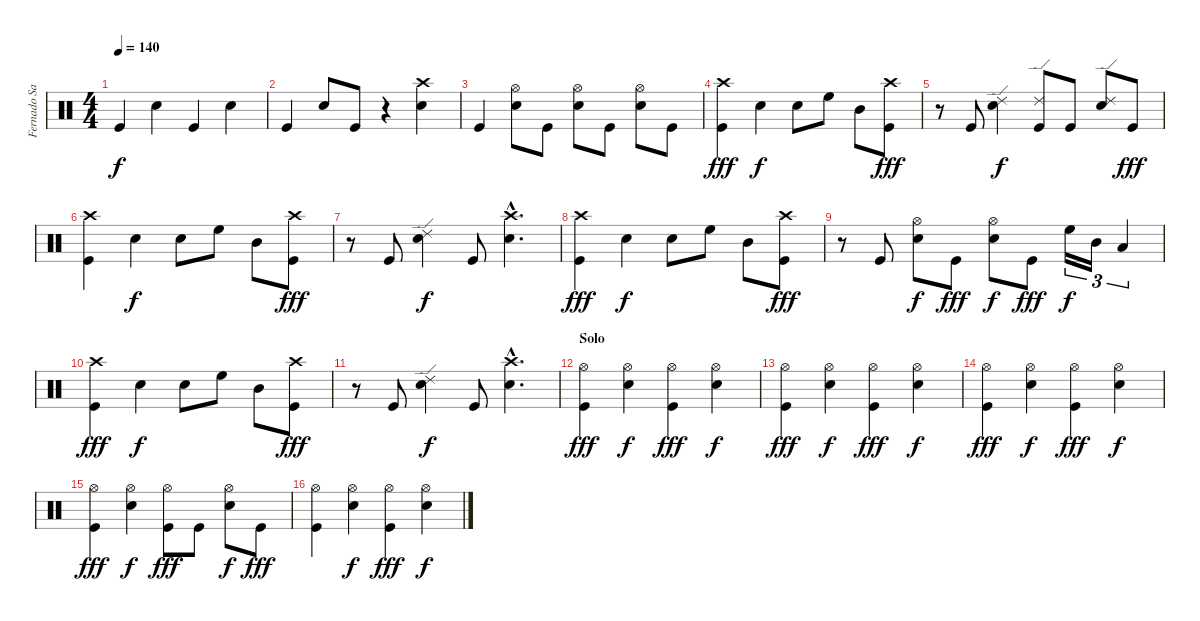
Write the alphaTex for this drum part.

\track ("Fernado Sanchez" "Fernado Sa") {instrument percussion}
\staff {score}
\articulation defaults
\ts (4 4)
\tempo 140
\clef neutral
\ks c "Kick (hit)".4{dy f} "Electric Snare (hit)".4 "Kick (hit)".4 "Electric Snare (hit)".4
|
"Kick (hit)".4 "Electric Snare (hit)".8 "Kick (hit)".8 r.4 ("Crash high (hit)" "Electric Snare (hit)").4 |
"Kick (hit)".4 ("Hi-Hat (open)" "Electric Snare (hit)").8 "Kick (hit)".8 ("Hi-Hat (open)" "Electric Snare (hit)").8 "Kick (hit)".8 ("Hi-Hat (open)" "Electric Snare (hit)").8 "Kick (hit)".8 |
("Crash high (hit)" "Kick (hit)").4{dy fff} "Electric Snare (hit)".4{dy f} "Electric Snare (hit)".8 "High Floor Tom (hit)".8 "Mid Tom (hit)".8 ("Crash high (hit)" "Kick (hit)").8{dy fff} |
r.8 "Kick (hit)".8 ("Ride (edge) 2" "Electric Snare (hit)").4{dy f} ("Ride (edge) 2" "Kick (hit)").8 "Kick (hit)".8 ("Ride (edge) 2" "Electric Snare (hit)").8 "Kick (hit)".8{dy fff} |
("Crash high (hit)" "Kick (hit)").4 "Electric Snare (hit)".4{dy f} "Electric Snare (hit)".8 "High Floor Tom (hit)".8 "Mid Tom (hit)".8 ("Crash high (hit)" "Kick (hit)").8{dy fff} |
r.8 "Kick (hit)".8 ("Ride (edge) 2" "Electric Snare (hit)").4{dy f} "Kick (hit)".8 ("Crash high (hit)"{hac} "Electric Snare (hit)"{hac}).4{d} |
("Crash high (hit)" "Kick (hit)").4{dy fff} "Electric Snare (hit)".4{dy f} "Electric Snare (hit)".8 "High Floor Tom (hit)".8 "Mid Tom (hit)".8 ("Crash high (hit)" "Kick (hit)").8{dy fff} |
r.8 "Kick (hit)".8 ("Hi-Hat (open)" "Electric Snare (hit)").8{dy f} "Kick (hit)".8{dy fff} ("Hi-Hat (open)" "Electric Snare (hit)").8{dy f} "Kick (hit)".8{dy fff} "High Floor Tom (hit)".16{tu (3 2) dy f} "Mid Tom (hit)".16{tu (3 2)} "Low Tom (hit)".4{tu (3 2)} |
("Crash high (hit)" "Kick (hit)").4{dy fff} "Electric Snare (hit)".4{dy f} "Electric Snare (hit)".8 "High Floor Tom (hit)".8 "Mid Tom (hit)".8 ("Crash high (hit)" "Kick (hit)").8{dy fff} |
r.8 "Kick (hit)".8 ("Ride (edge) 2" "Electric Snare (hit)").4{dy f} "Kick (hit)".8 ("Crash high (hit)"{hac} "Electric Snare (hit)"{hac}).4{d} |
\section ("" "Solo")
("Hi-Hat (open)" "Kick (hit)").4{dy fff} ("Hi-Hat (open)" "Electric Snare (hit)").4{dy f} ("Hi-Hat (open)" "Kick (hit)").4{dy fff} ("Hi-Hat (open)" "Electric Snare (hit)").4{dy f} |
("Hi-Hat (open)" "Kick (hit)").4{dy fff} ("Hi-Hat (open)" "Electric Snare (hit)").4{dy f} ("Hi-Hat (open)" "Kick (hit)").4{dy fff} ("Hi-Hat (open)" "Electric Snare (hit)").4{dy f} |
("Hi-Hat (open)" "Kick (hit)").4{dy fff} ("Hi-Hat (open)" "Electric Snare (hit)").4{dy f} ("Hi-Hat (open)" "Kick (hit)").4{dy fff} ("Hi-Hat (open)" "Electric Snare (hit)").4{dy f} |
("Hi-Hat (open)" "Kick (hit)").4{dy fff} ("Hi-Hat (open)" "Electric Snare (hit)").4{dy f} ("Hi-Hat (open)" "Kick (hit)").8{dy fff} "Kick (hit)".8 ("Hi-Hat (open)" "Electric Snare (hit)").8{dy f} "Kick (hit)".8{dy fff} |
("Hi-Hat (open)" "Kick (hit)").4 ("Hi-Hat (open)" "Electric Snare (hit)").4{dy f} ("Hi-Hat (open)" "Kick (hit)").4{dy fff} ("Hi-Hat (open)" "Electric Snare (hit)").4{dy f}
